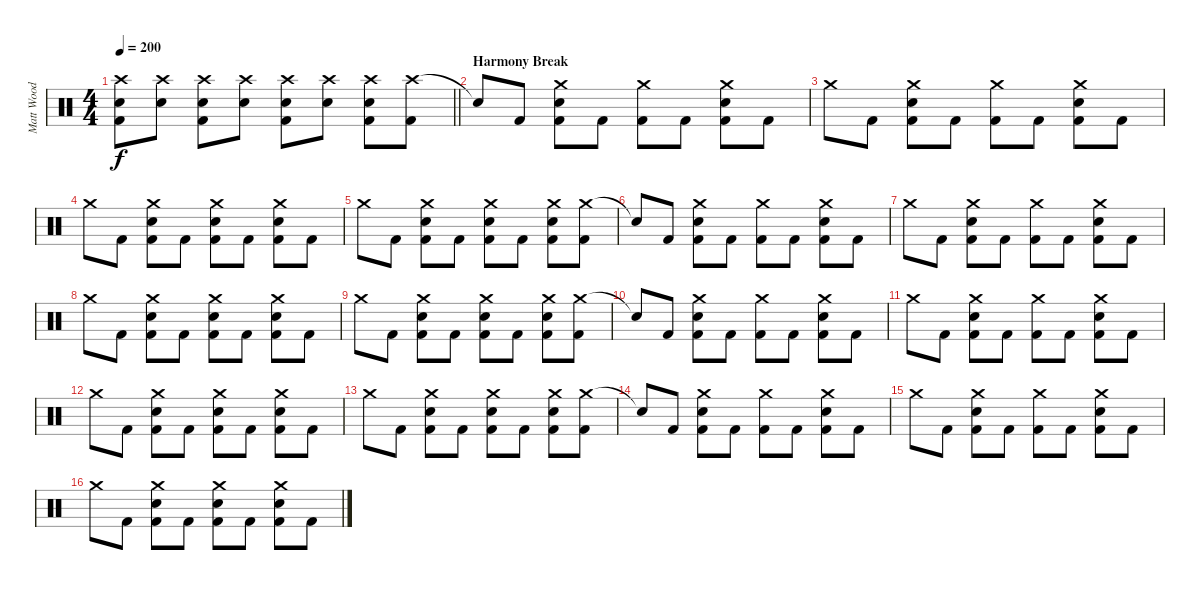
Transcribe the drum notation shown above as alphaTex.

\track ("Matt Wood" "Matt Wood") {instrument percussion}
\staff {score}
\articulation defaults
\ts (4 4)
\tempo 200
\clef neutral
\barLineRight lightlight
\ks c
("Crash high (hit)" "Snare (hit) 2" "Kick (hit) 2").8{dy f} ("Crash high (hit)" "Snare (hit) 2").8 ("Crash high (hit)" "Snare (hit) 2" "Kick (hit) 2").8 ("Crash high (hit)" "Snare (hit) 2").8 ("Crash high (hit)" "Snare (hit) 2" "Kick (hit) 2").8 ("Crash high (hit)" "Snare (hit) 2").8 ("Crash high (hit)" "Snare (hit) 2" "Kick (hit) 2").8 ("Crash high (hit)" "Kick (hit) 2").8 |
\section ("" "Harmony Break")
"Snare (hit)"{t}.8 "Kick (hit) 2".8 ("Crash medium (hit)" "Snare (hit) 2" "Kick (hit) 2").8 "Kick (hit) 2".8 ("Crash medium (hit)" "Kick (hit) 2").8 "Kick (hit) 2".8 ("Crash medium (hit)" "Snare (hit) 2" "Kick (hit) 2").8 "Kick (hit) 2".8 |
"Crash medium (hit)".8 "Kick (hit) 2".8 ("Crash medium (hit)" "Snare (hit) 2" "Kick (hit) 2").8 "Kick (hit) 2".8 ("Crash medium (hit)" "Kick (hit) 2").8 "Kick (hit) 2".8 ("Crash medium (hit)" "Snare (hit) 2" "Kick (hit) 2").8 "Kick (hit) 2".8 |
"Crash medium (hit)".8 "Kick (hit) 2".8 ("Crash medium (hit)" "Snare (hit) 2" "Kick (hit) 2").8 "Kick (hit) 2".8 ("Crash medium (hit)" "Snare (hit) 2" "Kick (hit) 2").8 "Kick (hit) 2".8 ("Crash medium (hit)" "Snare (hit) 2" "Kick (hit) 2").8 "Kick (hit) 2".8 |
"Crash medium (hit)".8 "Kick (hit) 2".8 ("Crash medium (hit)" "Snare (hit) 2" "Kick (hit) 2").8 "Kick (hit) 2".8 ("Crash medium (hit)" "Snare (hit) 2" "Kick (hit) 2").8 "Kick (hit) 2".8 ("Crash medium (hit)" "Snare (hit) 2" "Kick (hit) 2").8 ("Crash medium (hit)" "Kick (hit) 2").8 |
"Snare (hit)"{t}.8 "Kick (hit) 2".8 ("Crash medium (hit)" "Snare (hit) 2" "Kick (hit) 2").8 "Kick (hit) 2".8 ("Crash medium (hit)" "Kick (hit) 2").8 "Kick (hit) 2".8 ("Crash medium (hit)" "Snare (hit) 2" "Kick (hit) 2").8 "Kick (hit) 2".8 |
"Crash medium (hit)".8 "Kick (hit) 2".8 ("Crash medium (hit)" "Snare (hit) 2" "Kick (hit) 2").8 "Kick (hit) 2".8 ("Crash medium (hit)" "Kick (hit) 2").8 "Kick (hit) 2".8 ("Crash medium (hit)" "Snare (hit) 2" "Kick (hit) 2").8 "Kick (hit) 2".8 |
"Crash medium (hit)".8 "Kick (hit) 2".8 ("Crash medium (hit)" "Snare (hit) 2" "Kick (hit) 2").8 "Kick (hit) 2".8 ("Crash medium (hit)" "Snare (hit) 2" "Kick (hit) 2").8 "Kick (hit) 2".8 ("Crash medium (hit)" "Snare (hit) 2" "Kick (hit) 2").8 "Kick (hit) 2".8 |
"Crash medium (hit)".8 "Kick (hit) 2".8 ("Crash medium (hit)" "Snare (hit) 2" "Kick (hit) 2").8 "Kick (hit) 2".8 ("Crash medium (hit)" "Snare (hit) 2" "Kick (hit) 2").8 "Kick (hit) 2".8 ("Crash medium (hit)" "Snare (hit) 2" "Kick (hit) 2").8 ("Crash medium (hit)" "Kick (hit) 2").8 |
"Snare (hit)"{t}.8 "Kick (hit) 2".8 ("Crash medium (hit)" "Snare (hit) 2" "Kick (hit) 2").8 "Kick (hit) 2".8 ("Crash medium (hit)" "Kick (hit) 2").8 "Kick (hit) 2".8 ("Crash medium (hit)" "Snare (hit) 2" "Kick (hit) 2").8 "Kick (hit) 2".8 |
"Crash medium (hit)".8 "Kick (hit) 2".8 ("Crash medium (hit)" "Snare (hit) 2" "Kick (hit) 2").8 "Kick (hit) 2".8 ("Crash medium (hit)" "Kick (hit) 2").8 "Kick (hit) 2".8 ("Crash medium (hit)" "Snare (hit) 2" "Kick (hit) 2").8 "Kick (hit) 2".8 |
"Crash medium (hit)".8 "Kick (hit) 2".8 ("Crash medium (hit)" "Snare (hit) 2" "Kick (hit) 2").8 "Kick (hit) 2".8 ("Crash medium (hit)" "Snare (hit) 2" "Kick (hit) 2").8 "Kick (hit) 2".8 ("Crash medium (hit)" "Snare (hit) 2" "Kick (hit) 2").8 "Kick (hit) 2".8 |
"Crash medium (hit)".8 "Kick (hit) 2".8 ("Crash medium (hit)" "Snare (hit) 2" "Kick (hit) 2").8 "Kick (hit) 2".8 ("Crash medium (hit)" "Snare (hit) 2" "Kick (hit) 2").8 "Kick (hit) 2".8 ("Crash medium (hit)" "Snare (hit) 2" "Kick (hit) 2").8 ("Crash medium (hit)" "Kick (hit) 2").8 |
"Snare (hit)"{t}.8 "Kick (hit) 2".8 ("Crash medium (hit)" "Snare (hit) 2" "Kick (hit) 2").8 "Kick (hit) 2".8 ("Crash medium (hit)" "Kick (hit) 2").8 "Kick (hit) 2".8 ("Crash medium (hit)" "Snare (hit) 2" "Kick (hit) 2").8 "Kick (hit) 2".8 |
"Crash medium (hit)".8 "Kick (hit) 2".8 ("Crash medium (hit)" "Snare (hit) 2" "Kick (hit) 2").8 "Kick (hit) 2".8 ("Crash medium (hit)" "Kick (hit) 2").8 "Kick (hit) 2".8 ("Crash medium (hit)" "Snare (hit) 2" "Kick (hit) 2").8 "Kick (hit) 2".8 |
"Crash medium (hit)".8 "Kick (hit) 2".8 ("Crash medium (hit)" "Snare (hit) 2" "Kick (hit) 2").8 "Kick (hit) 2".8 ("Crash medium (hit)" "Snare (hit) 2" "Kick (hit) 2").8 "Kick (hit) 2".8 ("Crash medium (hit)" "Snare (hit) 2" "Kick (hit) 2").8 "Kick (hit) 2".8
